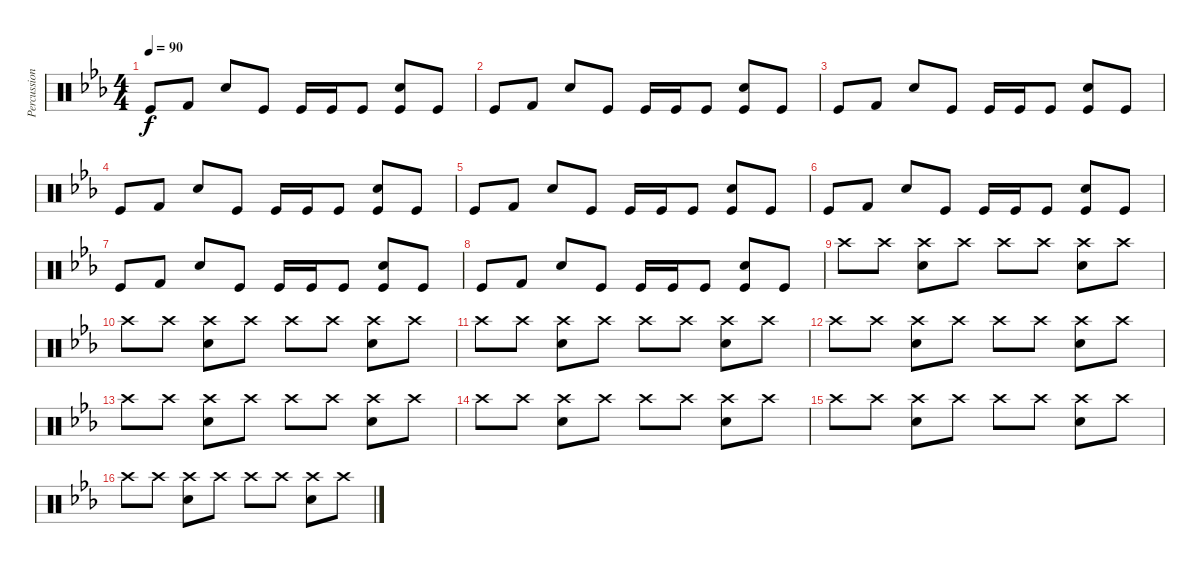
\track ("Percussion" "Percussion") {instrument percussion}
\staff {score}
\articulation defaults
\ts (4 4)
\tempo 90
\clef neutral
\ks cminor "Kick (hit)".8{dy f} "Kick (hit) 2".8 "Electric Snare (hit)".8 "Kick (hit)".8 "Kick (hit)".16 "Kick (hit)".16 "Kick (hit)".8
("Electric Snare (hit)" "Kick (hit)").8 "Kick (hit)".8 |
"Kick (hit)".8 "Kick (hit) 2".8 "Electric Snare (hit)".8 "Kick (hit)".8 "Kick (hit)".16 "Kick (hit)".16 "Kick (hit)".8 ("Electric Snare (hit)" "Kick (hit)").8 "Kick (hit)".8 |
"Kick (hit)".8 "Kick (hit) 2".8 "Electric Snare (hit)".8 "Kick (hit)".8 "Kick (hit)".16 "Kick (hit)".16 "Kick (hit)".8 ("Electric Snare (hit)" "Kick (hit)").8 "Kick (hit)".8 |
"Kick (hit)".8 "Kick (hit) 2".8 "Electric Snare (hit)".8 "Kick (hit)".8 "Kick (hit)".16 "Kick (hit)".16 "Kick (hit)".8 ("Electric Snare (hit)" "Kick (hit)").8 "Kick (hit)".8 |
"Kick (hit)".8 "Kick (hit) 2".8 "Electric Snare (hit)".8 "Kick (hit)".8 "Kick (hit)".16 "Kick (hit)".16 "Kick (hit)".8 ("Electric Snare (hit)" "Kick (hit)").8 "Kick (hit)".8 |
"Kick (hit)".8 "Kick (hit) 2".8 "Electric Snare (hit)".8 "Kick (hit)".8 "Kick (hit)".16 "Kick (hit)".16 "Kick (hit)".8 ("Electric Snare (hit)" "Kick (hit)").8 "Kick (hit)".8 |
"Kick (hit)".8 "Kick (hit) 2".8 "Electric Snare (hit)".8 "Kick (hit)".8 "Kick (hit)".16 "Kick (hit)".16 "Kick (hit)".8 ("Electric Snare (hit)" "Kick (hit)").8 "Kick (hit)".8 |
"Kick (hit)".8 "Kick (hit) 2".8 "Electric Snare (hit)".8 "Kick (hit)".8 "Kick (hit)".16 "Kick (hit)".16 "Kick (hit)".8 ("Electric Snare (hit)" "Kick (hit)").8 "Kick (hit)".8 |
"Crash high (hit)".8 "Crash high (hit)".8 ("Electric Snare (hit)" "Crash high (hit)").8 "Crash high (hit)".8 "Crash high (hit)".8 "Crash high (hit)".8 ("Electric Snare (hit)" "Crash high (hit)").8 "Crash high (hit)".8 |
"Crash high (hit)".8 "Crash high (hit)".8 ("Electric Snare (hit)" "Crash high (hit)").8 "Crash high (hit)".8 "Crash high (hit)".8 "Crash high (hit)".8 ("Electric Snare (hit)" "Crash high (hit)").8 "Crash high (hit)".8 |
"Crash high (hit)".8 "Crash high (hit)".8 ("Electric Snare (hit)" "Crash high (hit)").8 "Crash high (hit)".8 "Crash high (hit)".8 "Crash high (hit)".8 ("Electric Snare (hit)" "Crash high (hit)").8 "Crash high (hit)".8 |
"Crash high (hit)".8 "Crash high (hit)".8 ("Electric Snare (hit)" "Crash high (hit)").8 "Crash high (hit)".8 "Crash high (hit)".8 "Crash high (hit)".8 ("Electric Snare (hit)" "Crash high (hit)").8 "Crash high (hit)".8 |
"Crash high (hit)".8 "Crash high (hit)".8 ("Electric Snare (hit)" "Crash high (hit)").8 "Crash high (hit)".8 "Crash high (hit)".8 "Crash high (hit)".8 ("Electric Snare (hit)" "Crash high (hit)").8 "Crash high (hit)".8 |
"Crash high (hit)".8 "Crash high (hit)".8 ("Electric Snare (hit)" "Crash high (hit)").8 "Crash high (hit)".8 "Crash high (hit)".8 "Crash high (hit)".8 ("Electric Snare (hit)" "Crash high (hit)").8 "Crash high (hit)".8 |
"Crash high (hit)".8 "Crash high (hit)".8 ("Electric Snare (hit)" "Crash high (hit)").8 "Crash high (hit)".8 "Crash high (hit)".8 "Crash high (hit)".8 ("Electric Snare (hit)" "Crash high (hit)").8 "Crash high (hit)".8 |
"Crash high (hit)".8 "Crash high (hit)".8 ("Electric Snare (hit)" "Crash high (hit)").8 "Crash high (hit)".8 "Crash high (hit)".8 "Crash high (hit)".8 ("Electric Snare (hit)" "Crash high (hit)").8 "Crash high (hit)".8
